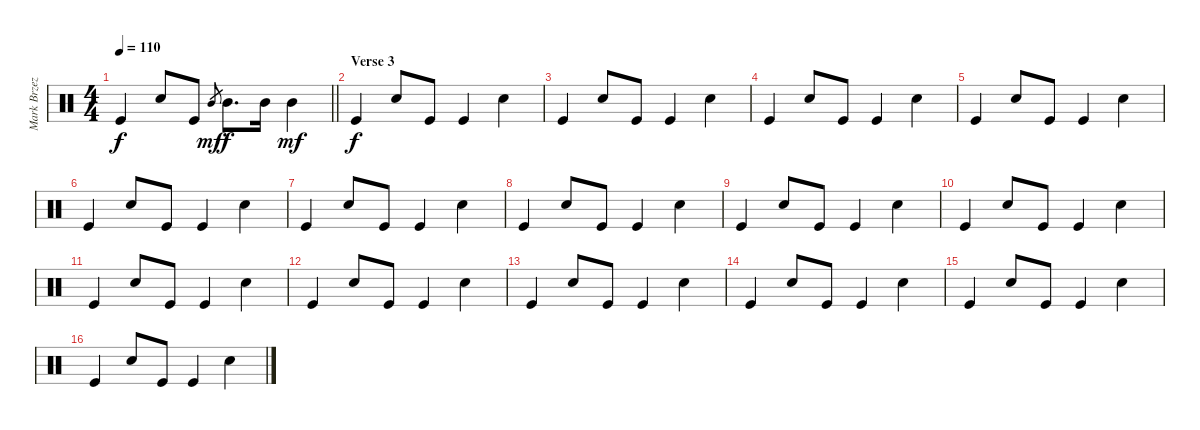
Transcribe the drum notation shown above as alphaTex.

\track ("Mark Brzezicki - Toms, Snare & Bass Drum" "Mark Brzez") {instrument percussion}
\staff {score}
\articulation defaults
\ts (4 4)
\tempo 110
\clef neutral
\barLineRight lightlight
\ks c "Kick (hit)".4{dy f} "Electric Snare (hit)".8 "Kick (hit)".8 "Mid Tom (hit)".8{gr dy mf} "Mid Tom (hit)".8{d dy f} "Mid Tom (hit)".16 "Mid Tom (hit)".4{dy mf}
|
\section ("" "Verse 3")
"Kick (hit)".4{dy f} "Electric Snare (hit)".8 "Kick (hit)".8 "Kick (hit)".4 "Electric Snare (hit)".4 |
"Kick (hit)".4 "Electric Snare (hit)".8 "Kick (hit)".8 "Kick (hit)".4 "Electric Snare (hit)".4 |
"Kick (hit)".4 "Electric Snare (hit)".8 "Kick (hit)".8 "Kick (hit)".4 "Electric Snare (hit)".4 |
"Kick (hit)".4 "Electric Snare (hit)".8 "Kick (hit)".8 "Kick (hit)".4 "Electric Snare (hit)".4 |
"Kick (hit)".4 "Electric Snare (hit)".8 "Kick (hit)".8 "Kick (hit)".4 "Electric Snare (hit)".4 |
"Kick (hit)".4 "Electric Snare (hit)".8 "Kick (hit)".8 "Kick (hit)".4 "Electric Snare (hit)".4 |
"Kick (hit)".4 "Electric Snare (hit)".8 "Kick (hit)".8 "Kick (hit)".4 "Electric Snare (hit)".4 |
"Kick (hit)".4 "Electric Snare (hit)".8 "Kick (hit)".8 "Kick (hit)".4 "Electric Snare (hit)".4 |
"Kick (hit)".4 "Electric Snare (hit)".8 "Kick (hit)".8 "Kick (hit)".4 "Electric Snare (hit)".4 |
"Kick (hit)".4 "Electric Snare (hit)".8 "Kick (hit)".8 "Kick (hit)".4 "Electric Snare (hit)".4 |
"Kick (hit)".4 "Electric Snare (hit)".8 "Kick (hit)".8 "Kick (hit)".4 "Electric Snare (hit)".4 |
"Kick (hit)".4 "Electric Snare (hit)".8 "Kick (hit)".8 "Kick (hit)".4 "Electric Snare (hit)".4 |
"Kick (hit)".4 "Electric Snare (hit)".8 "Kick (hit)".8 "Kick (hit)".4 "Electric Snare (hit)".4 |
"Kick (hit)".4 "Electric Snare (hit)".8 "Kick (hit)".8 "Kick (hit)".4 "Electric Snare (hit)".4 |
"Kick (hit)".4 "Electric Snare (hit)".8 "Kick (hit)".8 "Kick (hit)".4 "Electric Snare (hit)".4
